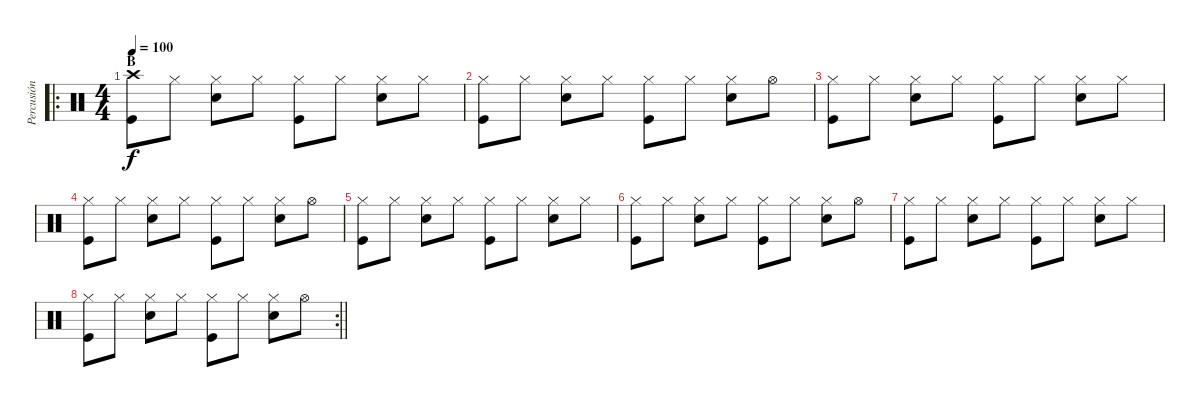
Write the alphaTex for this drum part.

\track ("Percusión" "Percusión") {instrument percussion}
\staff {score}
\articulation defaults
\ro
\ts (4 4)
\section ("" "B")
\tempo 100
\clef neutral
\ks c
("Crash high (hit)" "Kick (hit)").8{dy f} "Hi-Hat (closed)".8 ("Hi-Hat (closed)" "Electric Snare (hit)").8 "Hi-Hat (closed)".8 ("Hi-Hat (closed)" "Kick (hit)").8 "Hi-Hat (closed)".8 ("Hi-Hat (closed)" "Electric Snare (hit)").8 "Hi-Hat (closed)".8 |
("Hi-Hat (closed)" "Kick (hit)").8 "Hi-Hat (closed)".8 ("Hi-Hat (closed)" "Electric Snare (hit)").8 "Hi-Hat (closed)".8 ("Hi-Hat (closed)" "Kick (hit)").8 "Hi-Hat (closed)".8 ("Hi-Hat (closed)" "Electric Snare (hit)").8 "Hi-Hat (open)".8 |
("Hi-Hat (closed)" "Kick (hit)").8 "Hi-Hat (closed)".8 ("Hi-Hat (closed)" "Electric Snare (hit)").8 "Hi-Hat (closed)".8 ("Hi-Hat (closed)" "Kick (hit)").8 "Hi-Hat (closed)".8 ("Hi-Hat (closed)" "Electric Snare (hit)").8 "Hi-Hat (closed)".8 |
("Hi-Hat (closed)" "Kick (hit)").8 "Hi-Hat (closed)".8 ("Hi-Hat (closed)" "Electric Snare (hit)").8 "Hi-Hat (closed)".8 ("Hi-Hat (closed)" "Kick (hit)").8 "Hi-Hat (closed)".8 ("Hi-Hat (closed)" "Electric Snare (hit)").8 "Hi-Hat (open)".8 |
("Hi-Hat (closed)" "Kick (hit)").8 "Hi-Hat (closed)".8 ("Hi-Hat (closed)" "Electric Snare (hit)").8 "Hi-Hat (closed)".8 ("Hi-Hat (closed)" "Kick (hit)").8 "Hi-Hat (closed)".8 ("Hi-Hat (closed)" "Electric Snare (hit)").8 "Hi-Hat (closed)".8 |
("Hi-Hat (closed)" "Kick (hit)").8 "Hi-Hat (closed)".8 ("Hi-Hat (closed)" "Electric Snare (hit)").8 "Hi-Hat (closed)".8 ("Hi-Hat (closed)" "Kick (hit)").8 "Hi-Hat (closed)".8 ("Hi-Hat (closed)" "Electric Snare (hit)").8 "Hi-Hat (open)".8 |
("Hi-Hat (closed)" "Kick (hit)").8 "Hi-Hat (closed)".8 ("Hi-Hat (closed)" "Electric Snare (hit)").8 "Hi-Hat (closed)".8 ("Hi-Hat (closed)" "Kick (hit)").8 "Hi-Hat (closed)".8 ("Hi-Hat (closed)" "Electric Snare (hit)").8 "Hi-Hat (closed)".8 |
\rc 2
\barLineRight lightlight
("Hi-Hat (closed)" "Kick (hit)").8 "Hi-Hat (closed)".8 ("Hi-Hat (closed)" "Electric Snare (hit)").8 "Hi-Hat (closed)".8 ("Hi-Hat (closed)" "Kick (hit)").8 "Hi-Hat (closed)".8 ("Hi-Hat (closed)" "Electric Snare (hit)").8 "Hi-Hat (open)".8
